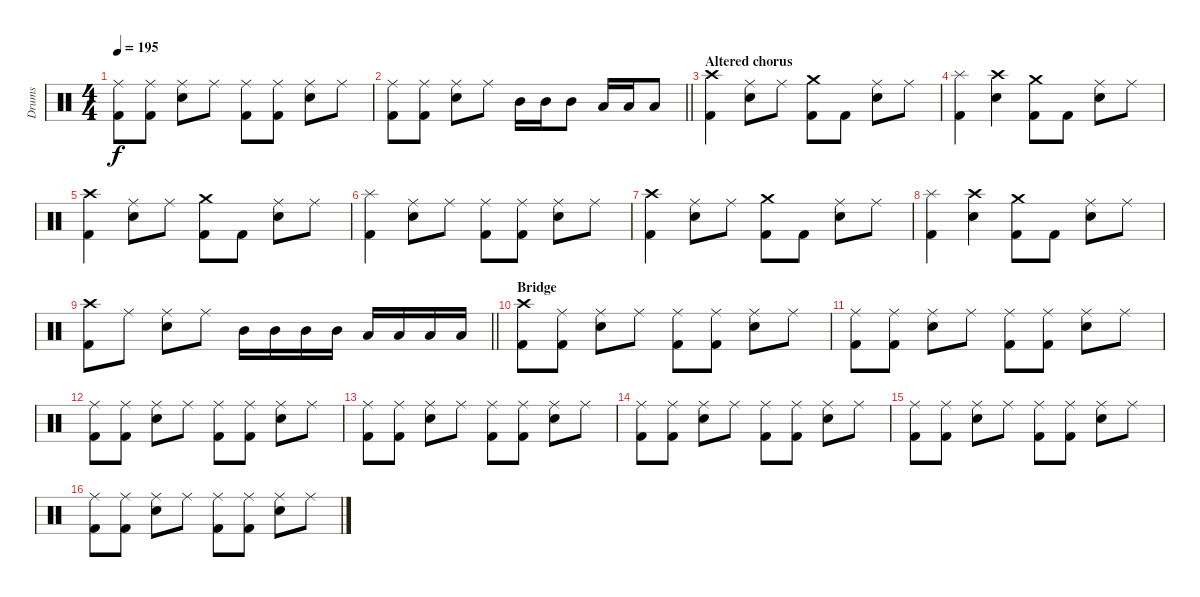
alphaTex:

\track ("Drums" "Drums") {instrument percussion}
\staff {score}
\articulation defaults
\ts (4 4)
\tempo 195
\clef neutral
\ks c
("Ride (middle)" "Kick (hit) 2").8{dy f} ("Ride (middle)" "Kick (hit) 2").8 ("Ride (middle)" "Electric Snare (hit)").8 "Ride (middle)".8 ("Ride (middle)" "Kick (hit) 2").8 ("Ride (middle)" "Kick (hit) 2").8 ("Ride (middle)" "Electric Snare (hit)").8 "Ride (middle)".8 |
\barLineRight lightlight
("Ride (middle)" "Kick (hit) 2").8 ("Ride (middle)" "Kick (hit) 2").8 ("Ride (middle)" "Electric Snare (hit)").8 "Ride (middle)".8 "Mid Tom (hit)".16 "Mid Tom (hit)".16 "Mid Tom (hit)".8 "Low Tom (hit)".16 "Low Tom (hit)".16 "Low Tom (hit)".8 |
\section ("" "Altered chorus")
("Crash high (hit)" "Kick (hit) 2").4 ("Ride (middle)" "Electric Snare (hit)").8 "Ride (middle)".8 ("Crash medium (hit)" "Kick (hit) 2").8 "Kick (hit) 2".8 ("Ride (middle)" "Electric Snare (hit)").8 "Ride (middle)".8 |
("Splash (hit)" "Kick (hit) 2").4 ("Crash high (hit)" "Electric Snare (hit)").4 ("Crash medium (hit)" "Kick (hit) 2").8 "Kick (hit) 2".8 ("Ride (middle)" "Electric Snare (hit)").8 "Ride (middle)".8 |
("Crash high (hit)" "Kick (hit) 2").4 ("Ride (middle)" "Electric Snare (hit)").8 "Ride (middle)".8 ("Crash medium (hit)" "Kick (hit) 2").8 "Kick (hit) 2".8 ("Ride (middle)" "Electric Snare (hit)").8 "Ride (middle)".8 |
("Splash (hit)" "Kick (hit) 2").4 ("Ride (middle)" "Electric Snare (hit)").8 "Ride (middle)".8 ("Ride (middle)" "Kick (hit) 2").8 ("Ride (middle)" "Kick (hit) 2").8 ("Ride (middle)" "Electric Snare (hit)").8 "Ride (middle)".8 |
("Crash high (hit)" "Kick (hit) 2").4 ("Ride (middle)" "Electric Snare (hit)").8 "Ride (middle)".8 ("Crash medium (hit)" "Kick (hit) 2").8 "Kick (hit) 2".8 ("Ride (middle)" "Electric Snare (hit)").8 "Ride (middle)".8 |
("Splash (hit)" "Kick (hit) 2").4 ("Crash high (hit)" "Electric Snare (hit)").4 ("Crash medium (hit)" "Kick (hit) 2").8 "Kick (hit) 2".8 ("Ride (middle)" "Electric Snare (hit)").8 "Ride (middle)".8 |
\barLineRight lightlight
("Crash high (hit)" "Kick (hit) 2").8 "Ride (middle)".8 ("Ride (middle)" "Electric Snare (hit)").8 "Ride (middle)".8 "Mid Tom (hit)".16 "Mid Tom (hit)".16 "Mid Tom (hit)".16 "Mid Tom (hit)".16 "Low Tom (hit)".16 "Low Tom (hit)".16 "Low Tom (hit)".16 "Low Tom (hit)".16 |
\section ("" "Bridge")
("Crash high (hit)" "Kick (hit) 2").8 ("Ride (middle)" "Kick (hit) 2").8 ("Ride (middle)" "Electric Snare (hit)").8 "Ride (middle)".8 ("Ride (middle)" "Kick (hit) 2").8 ("Ride (middle)" "Kick (hit) 2").8 ("Ride (middle)" "Electric Snare (hit)").8 "Ride (middle)".8 |
("Ride (middle)" "Kick (hit) 2").8 ("Ride (middle)" "Kick (hit) 2").8 ("Ride (middle)" "Electric Snare (hit)").8 "Ride (middle)".8 ("Ride (middle)" "Kick (hit) 2").8 ("Ride (middle)" "Kick (hit) 2").8 ("Ride (middle)" "Electric Snare (hit)").8 "Ride (middle)".8 |
("Ride (middle)" "Kick (hit) 2").8 ("Ride (middle)" "Kick (hit) 2").8 ("Ride (middle)" "Electric Snare (hit)").8 "Ride (middle)".8 ("Ride (middle)" "Kick (hit) 2").8 ("Ride (middle)" "Kick (hit) 2").8 ("Ride (middle)" "Electric Snare (hit)").8 "Ride (middle)".8 |
("Ride (middle)" "Kick (hit) 2").8 ("Ride (middle)" "Kick (hit) 2").8 ("Ride (middle)" "Electric Snare (hit)").8 "Ride (middle)".8 ("Ride (middle)" "Kick (hit) 2").8 ("Ride (middle)" "Kick (hit) 2").8 ("Ride (middle)" "Electric Snare (hit)").8 "Ride (middle)".8 |
("Ride (middle)" "Kick (hit) 2").8 ("Ride (middle)" "Kick (hit) 2").8 ("Ride (middle)" "Electric Snare (hit)").8 "Ride (middle)".8 ("Ride (middle)" "Kick (hit) 2").8 ("Ride (middle)" "Kick (hit) 2").8 ("Ride (middle)" "Electric Snare (hit)").8 "Ride (middle)".8 |
("Ride (middle)" "Kick (hit) 2").8 ("Ride (middle)" "Kick (hit) 2").8 ("Ride (middle)" "Electric Snare (hit)").8 "Ride (middle)".8 ("Ride (middle)" "Kick (hit) 2").8 ("Ride (middle)" "Kick (hit) 2").8 ("Ride (middle)" "Electric Snare (hit)").8 "Ride (middle)".8 |
("Ride (middle)" "Kick (hit) 2").8 ("Ride (middle)" "Kick (hit) 2").8 ("Ride (middle)" "Electric Snare (hit)").8 "Ride (middle)".8 ("Ride (middle)" "Kick (hit) 2").8 ("Ride (middle)" "Kick (hit) 2").8 ("Ride (middle)" "Electric Snare (hit)").8 "Ride (middle)".8
